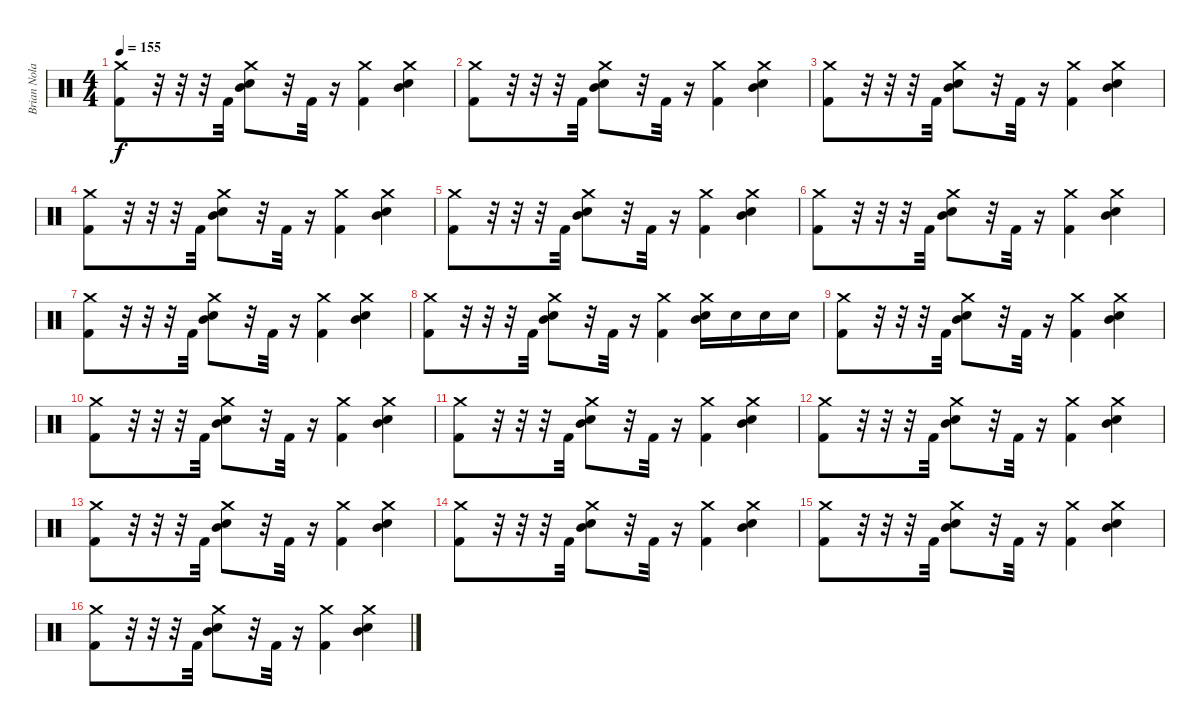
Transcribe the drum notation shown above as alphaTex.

\track ("Brian Nolan" "Brian Nola") {instrument percussion}
\staff {score}
\articulation defaults
\ts (4 4)
\tempo 155
\clef neutral
\ks c
("Crash medium (hit)" "Kick (hit) 2").8{dy f} r.32 r.32 r.32 "Kick (hit) 2".32 ("Snare (hit) 2" "Mid Tom (hit)" "Crash medium (hit)").8 r.32 "Kick (hit) 2".32 r.16 ("Crash medium (hit)" "Kick (hit) 2").4 ("Snare (hit) 2" "Mid Tom (hit)" "Crash medium (hit)").4 |
("Crash medium (hit)" "Kick (hit) 2").8 r.32 r.32 r.32 "Kick (hit) 2".32 ("Snare (hit) 2" "Mid Tom (hit)" "Crash medium (hit)").8 r.32 "Kick (hit) 2".32 r.16 ("Crash medium (hit)" "Kick (hit) 2").4 ("Snare (hit) 2" "Mid Tom (hit)" "Crash medium (hit)").4 |
("Crash medium (hit)" "Kick (hit) 2").8 r.32 r.32 r.32 "Kick (hit) 2".32 ("Snare (hit) 2" "Mid Tom (hit)" "Crash medium (hit)").8 r.32 "Kick (hit) 2".32 r.16 ("Crash medium (hit)" "Kick (hit) 2").4 ("Snare (hit) 2" "Mid Tom (hit)" "Crash medium (hit)").4 |
("Crash medium (hit)" "Kick (hit) 2").8 r.32 r.32 r.32 "Kick (hit) 2".32 ("Snare (hit) 2" "Mid Tom (hit)" "Crash medium (hit)").8 r.32 "Kick (hit) 2".32 r.16 ("Crash medium (hit)" "Kick (hit) 2").4 ("Snare (hit) 2" "Mid Tom (hit)" "Crash medium (hit)").4 |
("Crash medium (hit)" "Kick (hit) 2").8 r.32 r.32 r.32 "Kick (hit) 2".32 ("Snare (hit) 2" "Mid Tom (hit)" "Crash medium (hit)").8 r.32 "Kick (hit) 2".32 r.16 ("Crash medium (hit)" "Kick (hit) 2").4 ("Snare (hit) 2" "Mid Tom (hit)" "Crash medium (hit)").4 |
("Crash medium (hit)" "Kick (hit) 2").8 r.32 r.32 r.32 "Kick (hit) 2".32 ("Snare (hit) 2" "Mid Tom (hit)" "Crash medium (hit)").8 r.32 "Kick (hit) 2".32 r.16 ("Crash medium (hit)" "Kick (hit) 2").4 ("Snare (hit) 2" "Mid Tom (hit)" "Crash medium (hit)").4 |
("Crash medium (hit)" "Kick (hit) 2").8 r.32 r.32 r.32 "Kick (hit) 2".32 ("Snare (hit) 2" "Mid Tom (hit)" "Crash medium (hit)").8 r.32 "Kick (hit) 2".32 r.16 ("Crash medium (hit)" "Kick (hit) 2").4 ("Snare (hit) 2" "Mid Tom (hit)" "Crash medium (hit)").4 |
("Crash medium (hit)" "Kick (hit) 2").8 r.32 r.32 r.32 "Kick (hit) 2".32 ("Snare (hit) 2" "Mid Tom (hit)" "Crash medium (hit)").8 r.32 "Kick (hit) 2".32 r.16 ("Crash medium (hit)" "Kick (hit) 2").4 ("Snare (hit) 2" "Mid Tom (hit)" "Crash medium (hit)").16 "Snare (hit) 2".16 "Snare (hit) 2".16 "Snare (hit) 2".16 |
("Crash medium (hit)" "Kick (hit) 2").8 r.32 r.32 r.32 "Kick (hit) 2".32 ("Snare (hit) 2" "Mid Tom (hit)" "Crash medium (hit)").8 r.32 "Kick (hit) 2".32 r.16 ("Crash medium (hit)" "Kick (hit) 2").4 ("Snare (hit) 2" "Mid Tom (hit)" "Crash medium (hit)").4 |
("Crash medium (hit)" "Kick (hit) 2").8 r.32 r.32 r.32 "Kick (hit) 2".32 ("Snare (hit) 2" "Mid Tom (hit)" "Crash medium (hit)").8 r.32 "Kick (hit) 2".32 r.16 ("Crash medium (hit)" "Kick (hit) 2").4 ("Snare (hit) 2" "Mid Tom (hit)" "Crash medium (hit)").4 |
("Crash medium (hit)" "Kick (hit) 2").8 r.32 r.32 r.32 "Kick (hit) 2".32 ("Snare (hit) 2" "Mid Tom (hit)" "Crash medium (hit)").8 r.32 "Kick (hit) 2".32 r.16 ("Crash medium (hit)" "Kick (hit) 2").4 ("Snare (hit) 2" "Mid Tom (hit)" "Crash medium (hit)").4 |
("Crash medium (hit)" "Kick (hit) 2").8 r.32 r.32 r.32 "Kick (hit) 2".32 ("Snare (hit) 2" "Mid Tom (hit)" "Crash medium (hit)").8 r.32 "Kick (hit) 2".32 r.16 ("Crash medium (hit)" "Kick (hit) 2").4 ("Snare (hit) 2" "Mid Tom (hit)" "Crash medium (hit)").4 |
("Crash medium (hit)" "Kick (hit) 2").8 r.32 r.32 r.32 "Kick (hit) 2".32 ("Snare (hit) 2" "Mid Tom (hit)" "Crash medium (hit)").8 r.32 "Kick (hit) 2".32 r.16 ("Crash medium (hit)" "Kick (hit) 2").4 ("Snare (hit) 2" "Mid Tom (hit)" "Crash medium (hit)").4 |
("Crash medium (hit)" "Kick (hit) 2").8 r.32 r.32 r.32 "Kick (hit) 2".32 ("Snare (hit) 2" "Mid Tom (hit)" "Crash medium (hit)").8 r.32 "Kick (hit) 2".32 r.16 ("Crash medium (hit)" "Kick (hit) 2").4 ("Snare (hit) 2" "Mid Tom (hit)" "Crash medium (hit)").4 |
("Crash medium (hit)" "Kick (hit) 2").8 r.32 r.32 r.32 "Kick (hit) 2".32 ("Snare (hit) 2" "Mid Tom (hit)" "Crash medium (hit)").8 r.32 "Kick (hit) 2".32 r.16 ("Crash medium (hit)" "Kick (hit) 2").4 ("Snare (hit) 2" "Mid Tom (hit)" "Crash medium (hit)").4 |
("Crash medium (hit)" "Kick (hit) 2").8 r.32 r.32 r.32 "Kick (hit) 2".32 ("Snare (hit) 2" "Mid Tom (hit)" "Crash medium (hit)").8 r.32 "Kick (hit) 2".32 r.16 ("Crash medium (hit)" "Kick (hit) 2").4 ("Snare (hit) 2" "Mid Tom (hit)" "Crash medium (hit)").4
